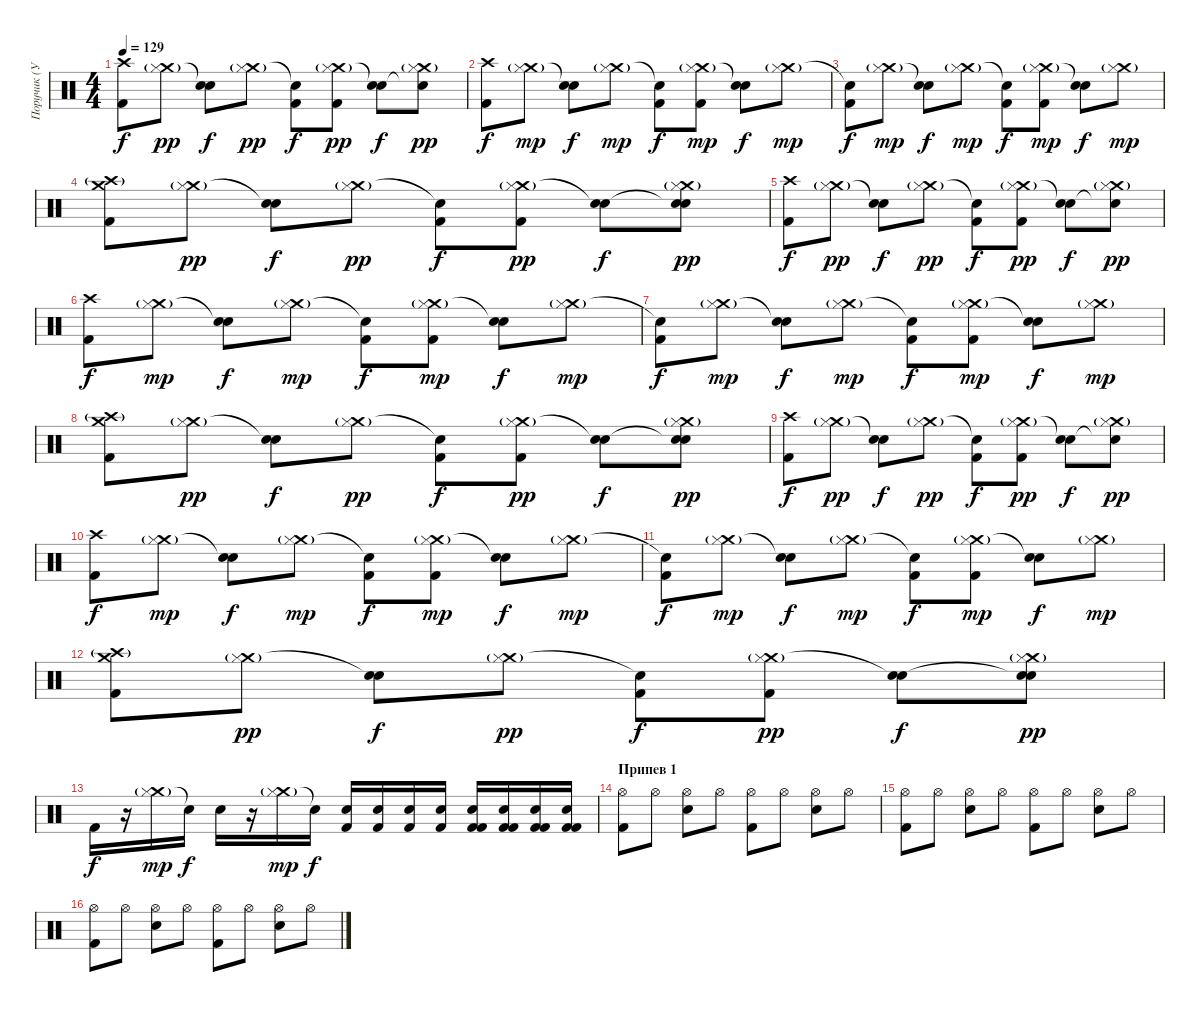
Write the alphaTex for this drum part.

\track ("Поручик (Ударные)" "Поручик (У") {instrument percussion}
\staff {score}
\articulation defaults
\ts (4 4)
\tempo 129
\clef neutral
\ks c
("Kick (hit) 2" "Crash high (hit)").8{dy f} ("Crash medium (hit)"{g} "Hi-Hat (closed)").8{dy pp} ("Snare (hit) 2" "Snare (hit)"{t}).8{dy f} ("Crash medium (hit)"{g} "Hi-Hat (closed)").8{dy pp} ("Kick (hit) 2" "Snare (hit)"{t}).8{dy f} ("Kick (hit) 2" "Crash medium (hit)"{g} "Hi-Hat (closed)").8{dy pp} ("Snare (hit) 2" "Snare (hit)"{t}).8{dy f} ("Crash medium (hit)"{g} "Snare (hit)"{t} "Hi-Hat (closed)").8{dy pp} |
("Kick (hit) 2" "Crash high (hit)").8{dy f} ("Crash medium (hit)"{g} "Hi-Hat (closed)").8{dy mp} ("Snare (hit) 2" "Snare (hit)"{t}).8{dy f} ("Crash medium (hit)"{g} "Hi-Hat (closed)").8{dy mp} ("Kick (hit) 2" "Snare (hit)"{t}).8{dy f} ("Kick (hit) 2" "Crash medium (hit)"{g} "Hi-Hat (closed)").8{dy mp} ("Snare (hit) 2" "Snare (hit)"{t}).8{dy f} ("Crash medium (hit)"{g} "Hi-Hat (closed)").8{dy mp} |
("Kick (hit) 2" "Snare (hit)"{t}).8{dy f} ("Crash medium (hit)"{g} "Hi-Hat (closed)").8{dy mp} ("Snare (hit) 2" "Snare (hit)"{t}).8{dy f} ("Crash medium (hit)"{g} "Hi-Hat (closed)").8{dy mp} ("Kick (hit) 2" "Snare (hit)"{t}).8{dy f} ("Kick (hit) 2" "Crash medium (hit)"{g} "Hi-Hat (closed)").8{dy mp} ("Snare (hit) 2" "Snare (hit)"{t}).8{dy f} ("Crash medium (hit)"{g} "Hi-Hat (closed)").8{dy mp} |
("Kick (hit) 2" "Crash medium (hit)" "Crash high (hit)"{g}).8 ("Crash medium (hit)"{g} "Hi-Hat (closed)").8{dy pp} ("Snare (hit) 2" "Snare (hit)"{t}).8{dy f} ("Crash medium (hit)"{g} "Hi-Hat (closed)").8{dy pp} ("Kick (hit) 2" "Snare (hit)"{t}).8{dy f} ("Kick (hit) 2" "Crash medium (hit)"{g} "Hi-Hat (closed)").8{dy pp} ("Snare (hit) 2" "Snare (hit)"{t}).8{dy f} ("Crash medium (hit)"{g} "Snare (hit)"{t} "Hi-Hat (closed)" "Snare (hit)").8{dy pp} |
("Kick (hit) 2" "Crash high (hit)").8{dy f} ("Crash medium (hit)"{g} "Hi-Hat (closed)").8{dy pp} ("Snare (hit) 2" "Snare (hit)"{t}).8{dy f} ("Crash medium (hit)"{g} "Hi-Hat (closed)").8{dy pp} ("Kick (hit) 2" "Snare (hit)"{t}).8{dy f} ("Kick (hit) 2" "Crash medium (hit)"{g} "Hi-Hat (closed)").8{dy pp} ("Snare (hit) 2" "Snare (hit)"{t}).8{dy f} ("Crash medium (hit)"{g} "Snare (hit)"{t} "Hi-Hat (closed)").8{dy pp} |
("Kick (hit) 2" "Crash high (hit)").8{dy f} ("Crash medium (hit)"{g} "Hi-Hat (closed)").8{dy mp} ("Snare (hit) 2" "Snare (hit)"{t}).8{dy f} ("Crash medium (hit)"{g} "Hi-Hat (closed)").8{dy mp} ("Kick (hit) 2" "Snare (hit)"{t}).8{dy f} ("Kick (hit) 2" "Crash medium (hit)"{g} "Hi-Hat (closed)").8{dy mp} ("Snare (hit) 2" "Snare (hit)"{t}).8{dy f} ("Crash medium (hit)"{g} "Hi-Hat (closed)").8{dy mp} |
("Kick (hit) 2" "Snare (hit)"{t}).8{dy f} ("Crash medium (hit)"{g} "Hi-Hat (closed)").8{dy mp} ("Snare (hit) 2" "Snare (hit)"{t}).8{dy f} ("Crash medium (hit)"{g} "Hi-Hat (closed)").8{dy mp} ("Kick (hit) 2" "Snare (hit)"{t}).8{dy f} ("Kick (hit) 2" "Crash medium (hit)"{g} "Hi-Hat (closed)").8{dy mp} ("Snare (hit) 2" "Snare (hit)"{t}).8{dy f} ("Crash medium (hit)"{g} "Hi-Hat (closed)").8{dy mp} |
("Kick (hit) 2" "Crash medium (hit)" "Crash high (hit)"{g}).8 ("Crash medium (hit)"{g} "Hi-Hat (closed)").8{dy pp} ("Snare (hit) 2" "Snare (hit)"{t}).8{dy f} ("Crash medium (hit)"{g} "Hi-Hat (closed)").8{dy pp} ("Kick (hit) 2" "Snare (hit)"{t}).8{dy f} ("Kick (hit) 2" "Crash medium (hit)"{g} "Hi-Hat (closed)").8{dy pp} ("Snare (hit) 2" "Snare (hit)"{t}).8{dy f} ("Crash medium (hit)"{g} "Snare (hit)"{t} "Hi-Hat (closed)" "Snare (hit)").8{dy pp} |
("Kick (hit) 2" "Crash high (hit)").8{dy f} ("Crash medium (hit)"{g} "Hi-Hat (closed)").8{dy pp} ("Snare (hit) 2" "Snare (hit)"{t}).8{dy f} ("Crash medium (hit)"{g} "Hi-Hat (closed)").8{dy pp} ("Kick (hit) 2" "Snare (hit)"{t}).8{dy f} ("Kick (hit) 2" "Crash medium (hit)"{g} "Hi-Hat (closed)").8{dy pp} ("Snare (hit) 2" "Snare (hit)"{t}).8{dy f} ("Crash medium (hit)"{g} "Snare (hit)"{t} "Hi-Hat (closed)").8{dy pp} |
("Kick (hit) 2" "Crash high (hit)").8{dy f} ("Crash medium (hit)"{g} "Hi-Hat (closed)").8{dy mp} ("Snare (hit) 2" "Snare (hit)"{t}).8{dy f} ("Crash medium (hit)"{g} "Hi-Hat (closed)").8{dy mp} ("Kick (hit) 2" "Snare (hit)"{t}).8{dy f} ("Kick (hit) 2" "Crash medium (hit)"{g} "Hi-Hat (closed)").8{dy mp} ("Snare (hit) 2" "Snare (hit)"{t}).8{dy f} ("Crash medium (hit)"{g} "Hi-Hat (closed)").8{dy mp} |
("Kick (hit) 2" "Snare (hit)"{t}).8{dy f} ("Crash medium (hit)"{g} "Hi-Hat (closed)").8{dy mp} ("Snare (hit) 2" "Snare (hit)"{t}).8{dy f} ("Crash medium (hit)"{g} "Hi-Hat (closed)").8{dy mp} ("Kick (hit) 2" "Snare (hit)"{t}).8{dy f} ("Kick (hit) 2" "Crash medium (hit)"{g} "Hi-Hat (closed)").8{dy mp} ("Snare (hit) 2" "Snare (hit)"{t}).8{dy f} ("Crash medium (hit)"{g} "Hi-Hat (closed)").8{dy mp} |
("Kick (hit) 2" "Crash medium (hit)" "Crash high (hit)"{g}).8 ("Crash medium (hit)"{g} "Hi-Hat (closed)").8{dy pp} ("Snare (hit) 2" "Snare (hit)"{t}).8{dy f} ("Crash medium (hit)"{g} "Hi-Hat (closed)").8{dy pp} ("Kick (hit) 2" "Snare (hit)"{t}).8{dy f} ("Kick (hit) 2" "Crash medium (hit)"{g} "Hi-Hat (closed)").8{dy pp} ("Snare (hit) 2" "Snare (hit)"{t}).8{dy f} ("Crash medium (hit)"{g} "Snare (hit)"{t} "Hi-Hat (closed)" "Snare (hit)").8{dy pp} |
"Kick (hit) 2".16{dy f} r.16 ("Crash medium (hit)"{g} "Hi-Hat (closed)").16{dy mp} "Snare (hit)"{t}.16{dy f} "Snare (hit) 2".16 r.16 ("Crash medium (hit)"{g} "Hi-Hat (closed)").16{dy mp} "Snare (hit)"{t}.16{dy f} ("Electric Snare (hit)" "Kick (hit) 2").16 ("Electric Snare (hit)" "Kick (hit) 2").16 ("Electric Snare (hit)" "Kick (hit) 2").16 ("Electric Snare (hit)" "Kick (hit) 2").16 ("Electric Snare (hit)" "Kick (hit) 2" "Kick (hit) 2").16 ("Electric Snare (hit)" "Kick (hit) 2" "Kick (hit) 2").16 ("Electric Snare (hit)" "Kick (hit) 2" "Kick (hit) 2").16 ("Electric Snare (hit)" "Kick (hit) 2" "Kick (hit) 2").16 |
\section ("" "Припев 1")
("Hi-Hat (open)" "Kick (hit) 2").8 "Hi-Hat (open)".8 ("Hi-Hat (open)" "Snare (hit) 2").8 "Hi-Hat (open)".8 ("Hi-Hat (open)" "Kick (hit) 2").8 "Hi-Hat (open)".8 ("Hi-Hat (open)" "Snare (hit) 2").8 "Hi-Hat (open)".8 |
("Hi-Hat (open)" "Kick (hit) 2").8 "Hi-Hat (open)".8 ("Hi-Hat (open)" "Snare (hit) 2").8 "Hi-Hat (open)".8 ("Hi-Hat (open)" "Kick (hit) 2").8 "Hi-Hat (open)".8 ("Hi-Hat (open)" "Snare (hit) 2").8 "Hi-Hat (open)".8 |
("Hi-Hat (open)" "Kick (hit) 2").8 "Hi-Hat (open)".8 ("Hi-Hat (open)" "Snare (hit) 2").8 "Hi-Hat (open)".8 ("Hi-Hat (open)" "Kick (hit) 2").8 "Hi-Hat (open)".8 ("Hi-Hat (open)" "Snare (hit) 2").8 "Hi-Hat (open)".8
